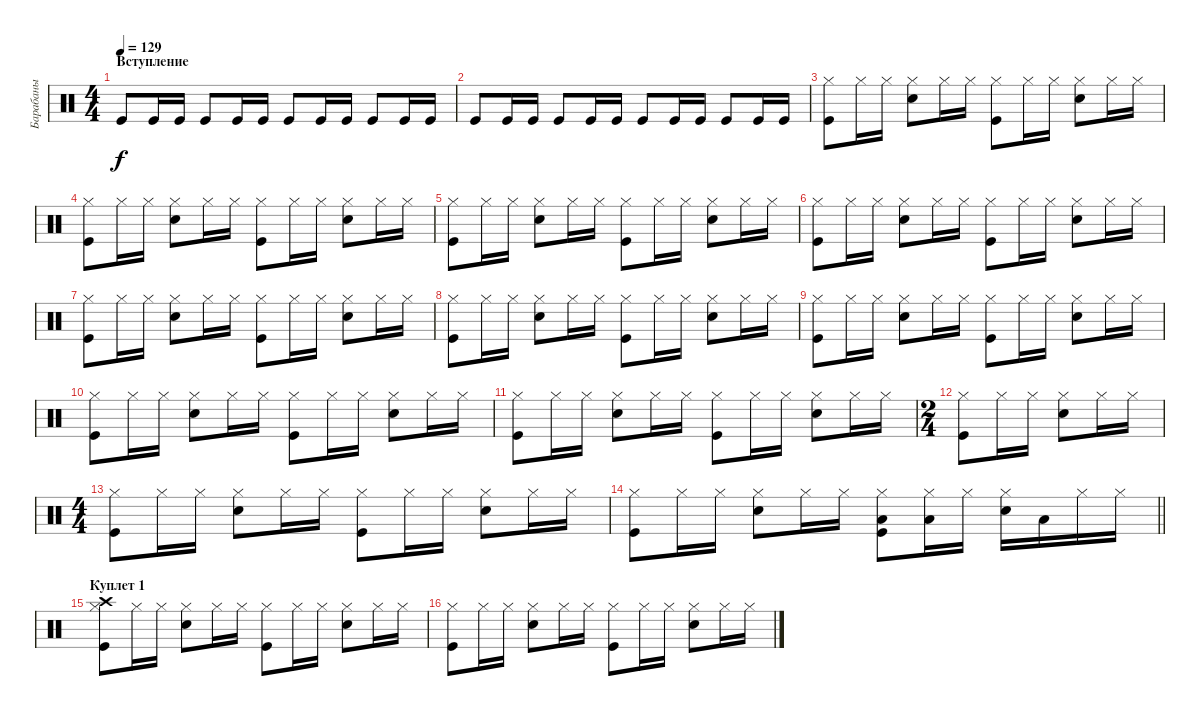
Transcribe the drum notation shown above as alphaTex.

\track ("Барабаны" "Барабаны") {instrument percussion}
\staff {score}
\articulation defaults
\ts (4 4)
\section ("" "Вступление")
\tempo 129
\clef neutral
\ks c "Kick (hit)".8{dy f balance 16} "Kick (hit)".16 "Kick (hit)".16 "Kick (hit)".8 "Kick (hit)".16 "Kick (hit)".16 "Kick (hit)".8 "Kick (hit)".16 "Kick (hit)".16 "Kick (hit)".8 "Kick (hit)".16 "Kick (hit)".16
|
"Kick (hit)".8 "Kick (hit)".16 "Kick (hit)".16 "Kick (hit)".8 "Kick (hit)".16 "Kick (hit)".16 "Kick (hit)".8 "Kick (hit)".16 "Kick (hit)".16 "Kick (hit)".8 "Kick (hit)".16 "Kick (hit)".16 |
("Kick (hit)" "Hi-Hat (closed)").8{balance 8} "Hi-Hat (closed)".16 "Hi-Hat (closed)".16 ("Snare (hit) 2" "Hi-Hat (closed)").8 "Hi-Hat (closed)".16 "Hi-Hat (closed)".16 ("Kick (hit)" "Hi-Hat (closed)").8 "Hi-Hat (closed)".16 "Hi-Hat (closed)".16 ("Snare (hit) 2" "Hi-Hat (closed)").8 "Hi-Hat (closed)".16 "Hi-Hat (closed)".16 |
("Kick (hit)" "Hi-Hat (closed)").8 "Hi-Hat (closed)".16 "Hi-Hat (closed)".16 ("Snare (hit) 2" "Hi-Hat (closed)").8 "Hi-Hat (closed)".16 "Hi-Hat (closed)".16 ("Kick (hit)" "Hi-Hat (closed)").8 "Hi-Hat (closed)".16 "Hi-Hat (closed)".16 ("Snare (hit) 2" "Hi-Hat (closed)").8 "Hi-Hat (closed)".16 "Hi-Hat (closed)".16 |
("Kick (hit)" "Hi-Hat (closed)").8 "Hi-Hat (closed)".16 "Hi-Hat (closed)".16 ("Snare (hit) 2" "Hi-Hat (closed)").8 "Hi-Hat (closed)".16 "Hi-Hat (closed)".16 ("Kick (hit)" "Hi-Hat (closed)").8 "Hi-Hat (closed)".16 "Hi-Hat (closed)".16 ("Snare (hit) 2" "Hi-Hat (closed)").8 "Hi-Hat (closed)".16 "Hi-Hat (closed)".16 |
("Kick (hit)" "Hi-Hat (closed)").8 "Hi-Hat (closed)".16 "Hi-Hat (closed)".16 ("Snare (hit) 2" "Hi-Hat (closed)").8 "Hi-Hat (closed)".16 "Hi-Hat (closed)".16 ("Kick (hit)" "Hi-Hat (closed)").8 "Hi-Hat (closed)".16 "Hi-Hat (closed)".16 ("Snare (hit) 2" "Hi-Hat (closed)").8 "Hi-Hat (closed)".16 "Hi-Hat (closed)".16 |
("Kick (hit)" "Hi-Hat (closed)").8 "Hi-Hat (closed)".16 "Hi-Hat (closed)".16 ("Snare (hit) 2" "Hi-Hat (closed)").8 "Hi-Hat (closed)".16 "Hi-Hat (closed)".16 ("Kick (hit)" "Hi-Hat (closed)").8 "Hi-Hat (closed)".16 "Hi-Hat (closed)".16 ("Snare (hit) 2" "Hi-Hat (closed)").8 "Hi-Hat (closed)".16 "Hi-Hat (closed)".16 |
("Kick (hit)" "Hi-Hat (closed)").8 "Hi-Hat (closed)".16 "Hi-Hat (closed)".16 ("Snare (hit) 2" "Hi-Hat (closed)").8 "Hi-Hat (closed)".16 "Hi-Hat (closed)".16 ("Kick (hit)" "Hi-Hat (closed)").8 "Hi-Hat (closed)".16 "Hi-Hat (closed)".16 ("Snare (hit) 2" "Hi-Hat (closed)").8 "Hi-Hat (closed)".16 "Hi-Hat (closed)".16 |
("Kick (hit)" "Hi-Hat (closed)").8 "Hi-Hat (closed)".16 "Hi-Hat (closed)".16 ("Snare (hit) 2" "Hi-Hat (closed)").8 "Hi-Hat (closed)".16 "Hi-Hat (closed)".16 ("Kick (hit)" "Hi-Hat (closed)").8 "Hi-Hat (closed)".16 "Hi-Hat (closed)".16 ("Snare (hit) 2" "Hi-Hat (closed)").8 "Hi-Hat (closed)".16 "Hi-Hat (closed)".16 |
("Kick (hit)" "Hi-Hat (closed)").8 "Hi-Hat (closed)".16 "Hi-Hat (closed)".16 ("Snare (hit) 2" "Hi-Hat (closed)").8 "Hi-Hat (closed)".16 "Hi-Hat (closed)".16 ("Kick (hit)" "Hi-Hat (closed)").8 "Hi-Hat (closed)".16 "Hi-Hat (closed)".16 ("Snare (hit) 2" "Hi-Hat (closed)").8 "Hi-Hat (closed)".16 "Hi-Hat (closed)".16 |
("Kick (hit)" "Hi-Hat (closed)").8 "Hi-Hat (closed)".16 "Hi-Hat (closed)".16 ("Snare (hit) 2" "Hi-Hat (closed)").8 "Hi-Hat (closed)".16 "Hi-Hat (closed)".16 ("Kick (hit)" "Hi-Hat (closed)").8 "Hi-Hat (closed)".16 "Hi-Hat (closed)".16 ("Snare (hit) 2" "Hi-Hat (closed)").8 "Hi-Hat (closed)".16 "Hi-Hat (closed)".16 |
\ts (2 4)
("Kick (hit)" "Hi-Hat (closed)").8 "Hi-Hat (closed)".16 "Hi-Hat (closed)".16 ("Snare (hit) 2" "Hi-Hat (closed)").8 "Hi-Hat (closed)".16 "Hi-Hat (closed)".16 |
\ts (4 4)
("Kick (hit)" "Hi-Hat (closed)").8 "Hi-Hat (closed)".16 "Hi-Hat (closed)".16 ("Snare (hit) 2" "Hi-Hat (closed)").8 "Hi-Hat (closed)".16 "Hi-Hat (closed)".16 ("Kick (hit)" "Hi-Hat (closed)").8 "Hi-Hat (closed)".16 "Hi-Hat (closed)".16 ("Snare (hit) 2" "Hi-Hat (closed)").8 "Hi-Hat (closed)".16 "Hi-Hat (closed)".16 |
\barLineRight lightlight
("Kick (hit)" "Hi-Hat (closed)").8 "Hi-Hat (closed)".16 "Hi-Hat (closed)".16 ("Snare (hit) 2" "Hi-Hat (closed)").8 "Hi-Hat (closed)".16 "Hi-Hat (closed)".16 ("Kick (hit)" "Hi-Hat (closed)" "Low Tom (hit)").8 ("Hi-Hat (closed)" "Low Tom (hit)").16 "Hi-Hat (closed)".16 ("Snare (hit) 2" "Hi-Hat (closed)").16 "Low Tom (hit)".16 "Hi-Hat (closed)".16 "Hi-Hat (closed)".16 |
\section ("" "Куплет 1")
("Kick (hit)" "Hi-Hat (closed)" "Crash high (hit)").8 "Hi-Hat (closed)".16 "Hi-Hat (closed)".16 ("Snare (hit) 2" "Hi-Hat (closed)").8 "Hi-Hat (closed)".16 "Hi-Hat (closed)".16 ("Kick (hit)" "Hi-Hat (closed)").8 "Hi-Hat (closed)".16 "Hi-Hat (closed)".16 ("Snare (hit) 2" "Hi-Hat (closed)").8 "Hi-Hat (closed)".16 "Hi-Hat (closed)".16 |
("Kick (hit)" "Hi-Hat (closed)").8 "Hi-Hat (closed)".16 "Hi-Hat (closed)".16 ("Snare (hit) 2" "Hi-Hat (closed)").8 "Hi-Hat (closed)".16 "Hi-Hat (closed)".16 ("Kick (hit)" "Hi-Hat (closed)").8 "Hi-Hat (closed)".16 "Hi-Hat (closed)".16 ("Snare (hit) 2" "Hi-Hat (closed)").8 "Hi-Hat (closed)".16 "Hi-Hat (closed)".16
